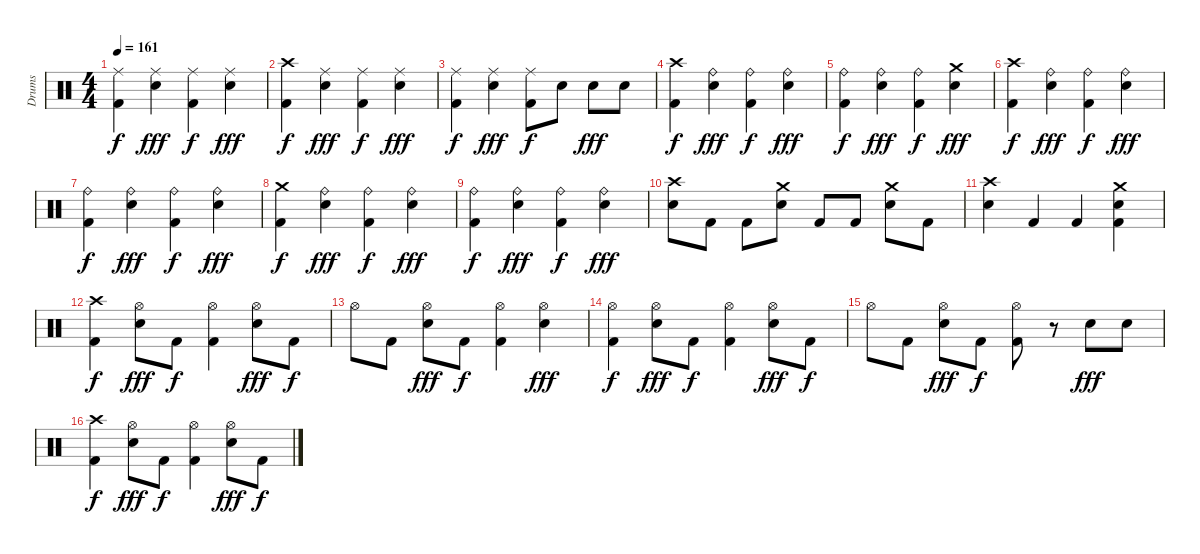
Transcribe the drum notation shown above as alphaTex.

\track ("Drums" "Drums") {instrument percussion}
\staff {score}
\articulation defaults
\ts (4 4)
\tempo 161
\clef neutral
\ks c
("Ride (middle)" "Kick (hit) 2").4{dy f} ("Ride (middle)" "Electric Snare (hit)").4{dy fff} ("Ride (middle)" "Kick (hit) 2").4{dy f} ("Ride (middle)" "Electric Snare (hit)").4{dy fff} |
("Crash high (hit)" "Kick (hit) 2").4{dy f} ("Ride (middle)" "Electric Snare (hit)").4{dy fff} ("Ride (middle)" "Kick (hit) 2").4{dy f} ("Ride (middle)" "Electric Snare (hit)").4{dy fff} |
("Ride (middle)" "Kick (hit) 2").4{dy f} ("Ride (middle)" "Electric Snare (hit)").4{dy fff} ("Ride (middle)" "Kick (hit) 2").8{dy f} "Electric Snare (hit)".8 "Electric Snare (hit)".8{dy fff} "Electric Snare (hit)".8 |
("Crash high (hit)" "Kick (hit) 2").4{dy f} ("Ride (bell)" "Electric Snare (hit)").4{dy fff} ("Ride (bell)" "Kick (hit) 2").4{dy f} ("Ride (bell)" "Electric Snare (hit)").4{dy fff} |
("Ride (bell)" "Kick (hit) 2").4{dy f} ("Ride (bell)" "Electric Snare (hit)").4{dy fff} ("Ride (bell)" "Kick (hit) 2").4{dy f} ("Crash medium (hit)" "Electric Snare (hit)").4{dy fff} |
("Crash high (hit)" "Kick (hit) 2").4{dy f} ("Ride (bell)" "Electric Snare (hit)").4{dy fff} ("Ride (bell)" "Kick (hit) 2").4{dy f} ("Ride (bell)" "Electric Snare (hit)").4{dy fff} |
("Ride (bell)" "Kick (hit) 2").4{dy f} ("Ride (bell)" "Electric Snare (hit)").4{dy fff} ("Ride (bell)" "Kick (hit) 2").4{dy f} ("Ride (bell)" "Electric Snare (hit)").4{dy fff} |
("Crash medium (hit)" "Kick (hit) 2").4{dy f} ("Ride (bell)" "Electric Snare (hit)").4{dy fff} ("Ride (bell)" "Kick (hit) 2").4{dy f} ("Ride (bell)" "Electric Snare (hit)").4{dy fff} |
("Ride (bell)" "Kick (hit) 2").4{dy f} ("Ride (bell)" "Electric Snare (hit)").4{dy fff} ("Ride (bell)" "Kick (hit) 2").4{dy f} ("Ride (bell)" "Electric Snare (hit)").4{dy fff} |
("Crash high (hit)" "Electric Snare (hit)").8 "Kick (hit) 2".8 "Kick (hit) 2".8 ("Crash medium (hit)" "Electric Snare (hit)").8 "Kick (hit) 2".8 "Kick (hit) 2".8 ("Crash medium (hit)" "Electric Snare (hit)").8 "Kick (hit) 2".8 |
("Crash high (hit)" "Electric Snare (hit)").4 "Kick (hit) 2".4 "Kick (hit) 2".4 ("Crash medium (hit)" "Electric Snare (hit)" "Kick (hit) 2").4 |
("Crash high (hit)" "Kick (hit) 2").4{dy f} ("Hi-Hat (open)" "Electric Snare (hit)").8{dy fff} "Kick (hit) 2".8{dy f} ("Hi-Hat (open)" "Kick (hit) 2").4 ("Hi-Hat (open)" "Electric Snare (hit)").8{dy fff} "Kick (hit) 2".8{dy f} |
"Hi-Hat (open)".8 "Kick (hit) 2".8 ("Hi-Hat (open)" "Electric Snare (hit)").8{dy fff} "Kick (hit) 2".8{dy f} ("Hi-Hat (open)" "Kick (hit) 2").4 ("Hi-Hat (open)" "Electric Snare (hit)").4{dy fff} |
("Hi-Hat (open)" "Kick (hit) 2").4{dy f} ("Hi-Hat (open)" "Electric Snare (hit)").8{dy fff} "Kick (hit) 2".8{dy f} ("Hi-Hat (open)" "Kick (hit) 2").4 ("Hi-Hat (open)" "Electric Snare (hit)").8{dy fff} "Kick (hit) 2".8{dy f} |
"Hi-Hat (open)".8 "Kick (hit) 2".8 ("Hi-Hat (open)" "Electric Snare (hit)").8{dy fff} "Kick (hit) 2".8{dy f} ("Hi-Hat (open)" "Kick (hit) 2").8 r.8 "Electric Snare (hit)".8{dy fff} "Electric Snare (hit)".8 |
("Crash high (hit)" "Kick (hit) 2").4{dy f} ("Hi-Hat (open)" "Electric Snare (hit)").8{dy fff} "Kick (hit) 2".8{dy f} ("Hi-Hat (open)" "Kick (hit) 2").4 ("Hi-Hat (open)" "Electric Snare (hit)").8{dy fff} "Kick (hit) 2".8{dy f}
